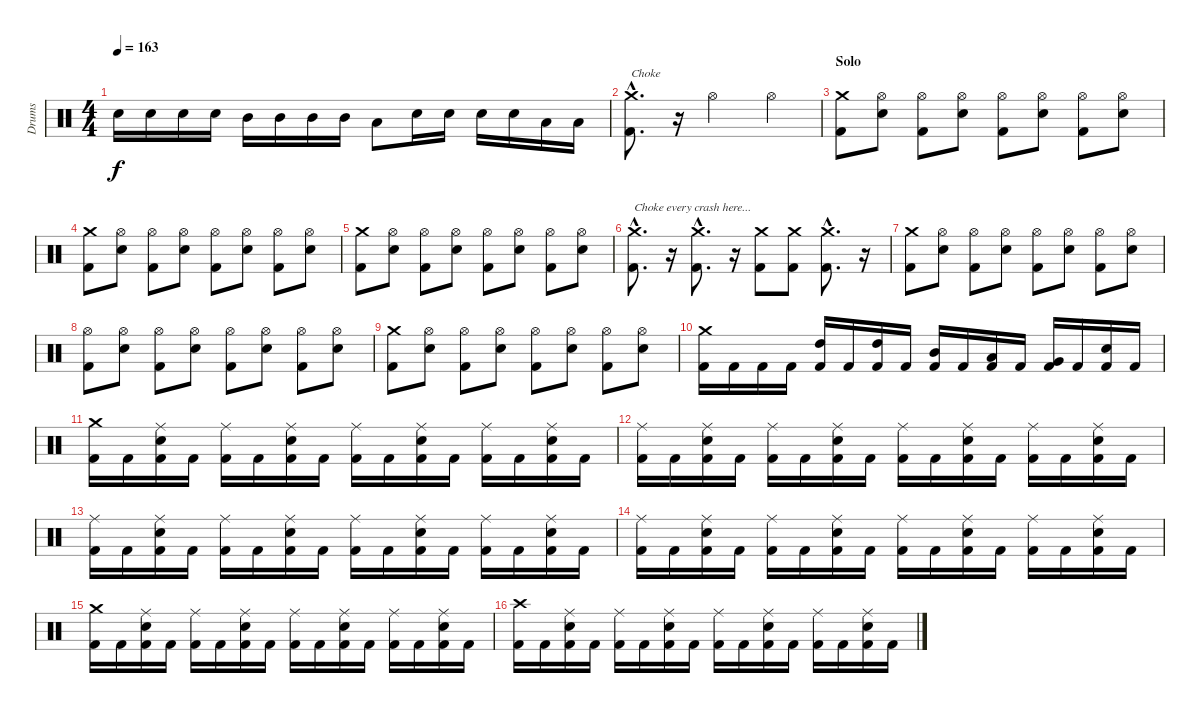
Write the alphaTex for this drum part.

\track ("Drums" "Drums") {instrument percussion}
\staff {score}
\articulation defaults
\ts (4 4)
\tempo 163
\clef neutral
\ks c "Snare (hit) 2".16{dy f} "Snare (hit) 2".16 "Snare (hit) 2".16 "Snare (hit) 2".16 "Mid Tom (hit)".16 "Mid Tom (hit)".16 "Mid Tom (hit)".16 "Mid Tom (hit)".16 "Low Tom (hit)".8 "Snare (hit) 2".16 "Snare (hit) 2".16 "Snare (hit) 2".16 "Snare (hit) 2".16 "Low Tom (hit)".16 "Low Tom (hit)".16
|
("Crash medium (hit)"{hac} "Kick (hit) 2"{hac}).8{d txt "Choke"} r.16{volume 0} "Hi-Hat (open)".2{volume 14} "Hi-Hat (open)".4 |
\section ("" "Solo")
("Crash medium (hit)" "Kick (hit) 2").8 ("Hi-Hat (open)" "Snare (hit) 2").8 ("Hi-Hat (open)" "Kick (hit) 2").8 ("Hi-Hat (open)" "Snare (hit) 2").8 ("Hi-Hat (open)" "Kick (hit) 2").8 ("Hi-Hat (open)" "Snare (hit) 2").8 ("Hi-Hat (open)" "Kick (hit) 2").8 ("Hi-Hat (open)" "Snare (hit) 2").8 |
("Crash medium (hit)" "Kick (hit) 2").8 ("Hi-Hat (open)" "Snare (hit) 2").8 ("Hi-Hat (open)" "Kick (hit) 2").8 ("Hi-Hat (open)" "Snare (hit) 2").8 ("Hi-Hat (open)" "Kick (hit) 2").8 ("Hi-Hat (open)" "Snare (hit) 2").8 ("Hi-Hat (open)" "Kick (hit) 2").8 ("Hi-Hat (open)" "Snare (hit) 2").8 |
("Crash medium (hit)" "Kick (hit) 2").8 ("Hi-Hat (open)" "Snare (hit) 2").8 ("Hi-Hat (open)" "Kick (hit) 2").8 ("Hi-Hat (open)" "Snare (hit) 2").8 ("Hi-Hat (open)" "Kick (hit) 2").8 ("Hi-Hat (open)" "Snare (hit) 2").8 ("Hi-Hat (open)" "Kick (hit) 2").8 ("Hi-Hat (open)" "Snare (hit) 2").8 |
("Crash medium (hit)"{hac} "Kick (hit) 2"{hac}).8{d txt "Choke every crash here..."} r.16{volume 0} ("Crash medium (hit)"{hac} "Kick (hit) 2"{hac}).8{d volume 14} r.16{volume 0} ("Crash medium (hit)" "Kick (hit) 2").8{volume 14} ("Crash medium (hit)" "Kick (hit) 2").8 ("Crash medium (hit)"{hac} "Kick (hit) 2"{hac}).8{d} r.16{volume 0} |
("Crash medium (hit)" "Kick (hit) 2").8{volume 14} ("Hi-Hat (open)" "Snare (hit) 2").8 ("Hi-Hat (open)" "Kick (hit) 2").8 ("Hi-Hat (open)" "Snare (hit) 2").8 ("Hi-Hat (open)" "Kick (hit) 2").8 ("Hi-Hat (open)" "Snare (hit) 2").8 ("Hi-Hat (open)" "Kick (hit) 2").8 ("Hi-Hat (open)" "Snare (hit) 2").8 |
("Hi-Hat (open)" "Kick (hit) 2").8 ("Hi-Hat (open)" "Snare (hit) 2").8 ("Hi-Hat (open)" "Kick (hit) 2").8 ("Hi-Hat (open)" "Snare (hit) 2").8 ("Hi-Hat (open)" "Kick (hit) 2").8 ("Hi-Hat (open)" "Snare (hit) 2").8 ("Hi-Hat (open)" "Kick (hit) 2").8 ("Hi-Hat (open)" "Snare (hit) 2").8 |
("Crash medium (hit)" "Kick (hit) 2").8 ("Hi-Hat (open)" "Snare (hit) 2").8 ("Hi-Hat (open)" "Kick (hit) 2").8 ("Hi-Hat (open)" "Snare (hit) 2").8 ("Hi-Hat (open)" "Kick (hit) 2").8 ("Hi-Hat (open)" "Snare (hit) 2").8 ("Hi-Hat (open)" "Kick (hit) 2").8 ("Hi-Hat (open)" "Snare (hit) 2").8 |
("Crash medium (hit)" "Kick (hit) 2").16 "Kick (hit) 2".16 "Kick (hit) 2".16 "Kick (hit) 2".16 ("High Tom (hit)" "Kick (hit) 2").16 "Kick (hit) 2".16 ("High Tom (hit)" "Kick (hit) 2").16 "Kick (hit) 2".16 ("Mid Tom (hit)" "Kick (hit) 2").16 "Kick (hit) 2".16 ("Low Tom (hit)" "Kick (hit) 2").16 "Kick (hit) 2".16 ("Very Low Tom (hit)" "Kick (hit) 2").16 "Kick (hit) 2".16 ("Snare (hit) 2" "Kick (hit) 2").16 "Kick (hit) 2".16 |
("Crash medium (hit)" "Kick (hit) 2").16 "Kick (hit) 2".16 ("Ride (middle)" "Snare (hit) 2" "Kick (hit) 2").16 "Kick (hit) 2".16 ("Ride (middle)" "Kick (hit) 2").16 "Kick (hit) 2".16 ("Ride (middle)" "Snare (hit) 2" "Kick (hit) 2").16 "Kick (hit) 2".16 ("Ride (middle)" "Kick (hit) 2").16 "Kick (hit) 2".16 ("Ride (middle)" "Snare (hit) 2" "Kick (hit) 2").16 "Kick (hit) 2".16 ("Ride (middle)" "Kick (hit) 2").16 "Kick (hit) 2".16 ("Ride (middle)" "Snare (hit) 2" "Kick (hit) 2").16 "Kick (hit) 2".16 |
("Ride (middle)" "Kick (hit) 2").16 "Kick (hit) 2".16 ("Ride (middle)" "Snare (hit) 2" "Kick (hit) 2").16 "Kick (hit) 2".16 ("Ride (middle)" "Kick (hit) 2").16 "Kick (hit) 2".16 ("Ride (middle)" "Snare (hit) 2" "Kick (hit) 2").16 "Kick (hit) 2".16 ("Ride (middle)" "Kick (hit) 2").16 "Kick (hit) 2".16 ("Ride (middle)" "Snare (hit) 2" "Kick (hit) 2").16 "Kick (hit) 2".16 ("Ride (middle)" "Kick (hit) 2").16 "Kick (hit) 2".16 ("Ride (middle)" "Snare (hit) 2" "Kick (hit) 2").16 "Kick (hit) 2".16 |
("Ride (middle)" "Kick (hit) 2").16 "Kick (hit) 2".16 ("Ride (middle)" "Snare (hit) 2" "Kick (hit) 2").16 "Kick (hit) 2".16 ("Ride (middle)" "Kick (hit) 2").16 "Kick (hit) 2".16 ("Ride (middle)" "Snare (hit) 2" "Kick (hit) 2").16 "Kick (hit) 2".16 ("Ride (middle)" "Kick (hit) 2").16 "Kick (hit) 2".16 ("Ride (middle)" "Snare (hit) 2" "Kick (hit) 2").16 "Kick (hit) 2".16 ("Ride (middle)" "Kick (hit) 2").16 "Kick (hit) 2".16 ("Ride (middle)" "Snare (hit) 2" "Kick (hit) 2").16 "Kick (hit) 2".16 |
("Ride (middle)" "Kick (hit) 2").16 "Kick (hit) 2".16 ("Ride (middle)" "Snare (hit) 2" "Kick (hit) 2").16 "Kick (hit) 2".16 ("Ride (middle)" "Kick (hit) 2").16 "Kick (hit) 2".16 ("Ride (middle)" "Snare (hit) 2" "Kick (hit) 2").16 "Kick (hit) 2".16 ("Ride (middle)" "Kick (hit) 2").16 "Kick (hit) 2".16 ("Ride (middle)" "Snare (hit) 2" "Kick (hit) 2").16 "Kick (hit) 2".16 ("Ride (middle)" "Kick (hit) 2").16 "Kick (hit) 2".16 ("Ride (middle)" "Snare (hit) 2" "Kick (hit) 2").16 "Kick (hit) 2".16 |
("Crash medium (hit)" "Kick (hit) 2").16 "Kick (hit) 2".16 ("Ride (middle)" "Snare (hit) 2" "Kick (hit) 2").16 "Kick (hit) 2".16 ("Ride (middle)" "Kick (hit) 2").16 "Kick (hit) 2".16 ("Ride (middle)" "Snare (hit) 2" "Kick (hit) 2").16 "Kick (hit) 2".16 ("Ride (middle)" "Kick (hit) 2").16 "Kick (hit) 2".16 ("Ride (middle)" "Snare (hit) 2" "Kick (hit) 2").16 "Kick (hit) 2".16 ("Ride (middle)" "Kick (hit) 2").16 "Kick (hit) 2".16 ("Ride (middle)" "Snare (hit) 2" "Kick (hit) 2").16 "Kick (hit) 2".16 |
("Crash high (hit)" "Kick (hit) 2").16 "Kick (hit) 2".16 ("Ride (middle)" "Snare (hit) 2" "Kick (hit) 2").16 "Kick (hit) 2".16 ("Ride (middle)" "Kick (hit) 2").16 "Kick (hit) 2".16 ("Ride (middle)" "Snare (hit) 2" "Kick (hit) 2").16 "Kick (hit) 2".16 ("Ride (middle)" "Kick (hit) 2").16 "Kick (hit) 2".16 ("Ride (middle)" "Snare (hit) 2" "Kick (hit) 2").16 "Kick (hit) 2".16 ("Ride (middle)" "Kick (hit) 2").16 "Kick (hit) 2".16 ("Ride (middle)" "Snare (hit) 2" "Kick (hit) 2").16 "Kick (hit) 2".16
